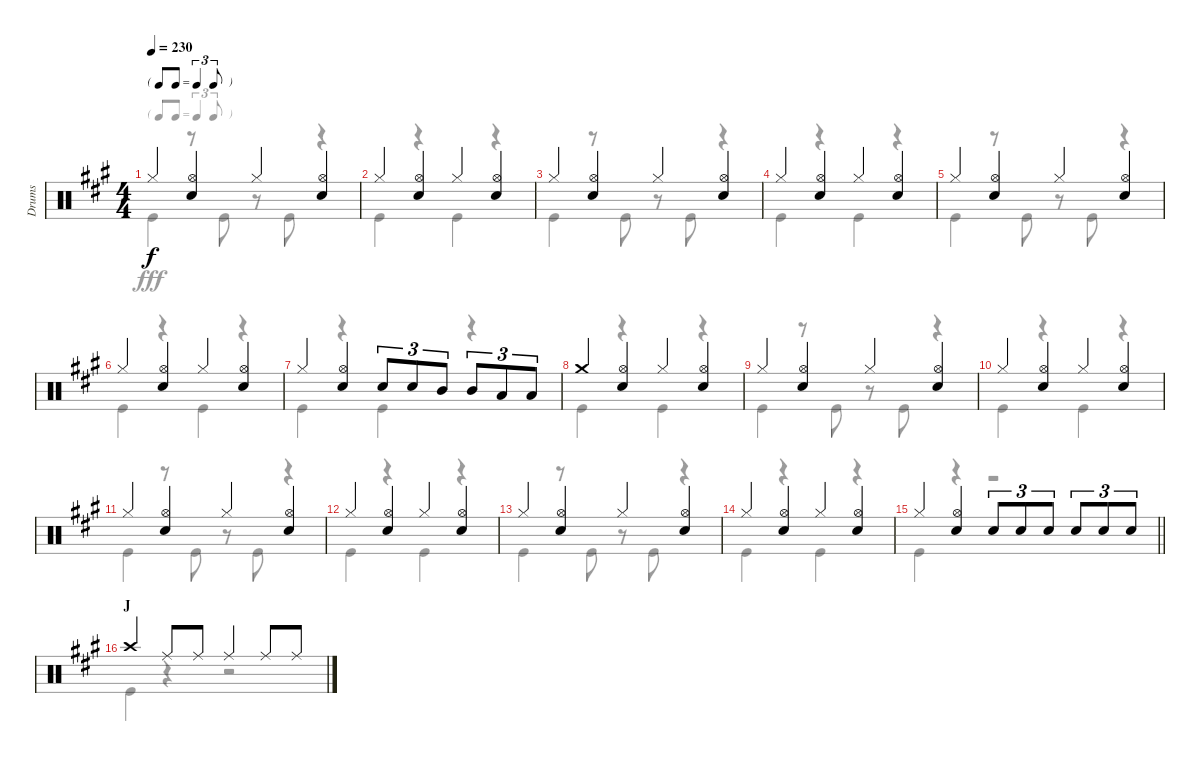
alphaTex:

\track ("Drums" "Drums") {instrument percussion}
\staff {score}
\articulation defaults
\voice
\ts (4 4)
\tf triplet8th
\tempo 230
\clef neutral
\ks a "Hi-Hat (closed)".4{dy f}
("Hi-Hat (open)" "Snare (hit) 2").4 "Hi-Hat (closed)".4 ("Hi-Hat (open)" "Snare (hit) 2").4 |
"Hi-Hat (closed)".4 ("Hi-Hat (open)" "Snare (hit) 2").4 "Hi-Hat (closed)".4 ("Hi-Hat (open)" "Snare (hit) 2").4 |
"Hi-Hat (closed)".4 ("Hi-Hat (open)" "Snare (hit) 2").4 "Hi-Hat (closed)".4 ("Hi-Hat (open)" "Snare (hit) 2").4 |
"Hi-Hat (closed)".4 ("Hi-Hat (open)" "Snare (hit) 2").4 "Hi-Hat (closed)".4 ("Hi-Hat (open)" "Snare (hit) 2").4 |
"Hi-Hat (closed)".4 ("Hi-Hat (open)" "Snare (hit) 2").4 "Hi-Hat (closed)".4 ("Hi-Hat (open)" "Snare (hit) 2").4 |
"Hi-Hat (closed)".4 ("Hi-Hat (open)" "Snare (hit) 2").4 "Hi-Hat (closed)".4 ("Hi-Hat (open)" "Snare (hit) 2").4 |
"Hi-Hat (closed)".4 ("Hi-Hat (open)" "Snare (hit) 2").4 "Snare (hit) 2".8{tu (3 2)} "Snare (hit) 2".8{tu (3 2)} "Mid Tom (hit)".8{tu (3 2)} "Mid Tom (hit)".8{tu (3 2)} "Low Tom (hit)".8{tu (3 2)} "Low Tom (hit)".8{tu (3 2)} |
"Crash medium (hit)".4 ("Hi-Hat (open)" "Snare (hit) 2").4 "Hi-Hat (closed)".4 ("Hi-Hat (open)" "Snare (hit) 2").4 |
"Hi-Hat (closed)".4 ("Hi-Hat (open)" "Snare (hit) 2").4 "Hi-Hat (closed)".4 ("Hi-Hat (open)" "Snare (hit) 2").4 |
"Hi-Hat (closed)".4 ("Hi-Hat (open)" "Snare (hit) 2").4 "Hi-Hat (closed)".4 ("Hi-Hat (open)" "Snare (hit) 2").4 |
"Hi-Hat (closed)".4 ("Hi-Hat (open)" "Snare (hit) 2").4 "Hi-Hat (closed)".4 ("Hi-Hat (open)" "Snare (hit) 2").4 |
"Hi-Hat (closed)".4 ("Hi-Hat (open)" "Snare (hit) 2").4 "Hi-Hat (closed)".4 ("Hi-Hat (open)" "Snare (hit) 2").4 |
"Hi-Hat (closed)".4 ("Hi-Hat (open)" "Snare (hit) 2").4 "Hi-Hat (closed)".4 ("Hi-Hat (open)" "Snare (hit) 2").4 |
"Hi-Hat (closed)".4 ("Hi-Hat (open)" "Snare (hit) 2").4 "Hi-Hat (closed)".4 ("Hi-Hat (open)" "Snare (hit) 2").4 |
\barLineRight lightlight "Hi-Hat (closed)".4
("Hi-Hat (open)" "Snare (hit) 2").4 "Snare (hit) 2".8{tu (3 2)} "Snare (hit) 2".8{tu (3 2)} "Snare (hit) 2".8{tu (3 2)} "Snare (hit) 2".8{tu (3 2)} "Snare (hit) 2".8{tu (3 2)} "Snare (hit) 2".8{tu (3 2)} |
\section ("" "J")
"Crash high (hit)".4 "Ride (middle)".8 "Ride (middle)".8 "Ride (middle)".4 "Ride (middle)".8 "Ride (middle)".8
\voice
\clef neutral
\ottava regular
\simile none
\ks a "Kick (hit)".4{dy fff}
r.8 "Kick (hit)".8 r.8 "Kick (hit)".8 r.4 |
"Kick (hit)".4 r.4 "Kick (hit)".4 r.4 |
"Kick (hit)".4 r.8 "Kick (hit)".8 r.8 "Kick (hit)".8 r.4 |
"Kick (hit)".4 r.4 "Kick (hit)".4 r.4 |
"Kick (hit)".4 r.8 "Kick (hit)".8 r.8 "Kick (hit)".8 r.4 |
"Kick (hit)".4 r.4 "Kick (hit)".4 r.4 |
"Kick (hit)".4 r.4 "Kick (hit)".4 r.4 |
"Kick (hit)".4 r.4 "Kick (hit)".4 r.4 |
"Kick (hit)".4 r.8 "Kick (hit)".8 r.8 "Kick (hit)".8 r.4 |
"Kick (hit)".4 r.4 "Kick (hit)".4 r.4 |
"Kick (hit)".4 r.8 "Kick (hit)".8 r.8 "Kick (hit)".8 r.4 |
"Kick (hit)".4 r.4 "Kick (hit)".4 r.4 |
"Kick (hit)".4 r.8 "Kick (hit)".8 r.8 "Kick (hit)".8 r.4 |
"Kick (hit)".4 r.4 "Kick (hit)".4 r.4 |
\barLineRight lightlight "Kick (hit)".4
r.4 r.2 |
"Kick (hit)".4 r.4 r.2
